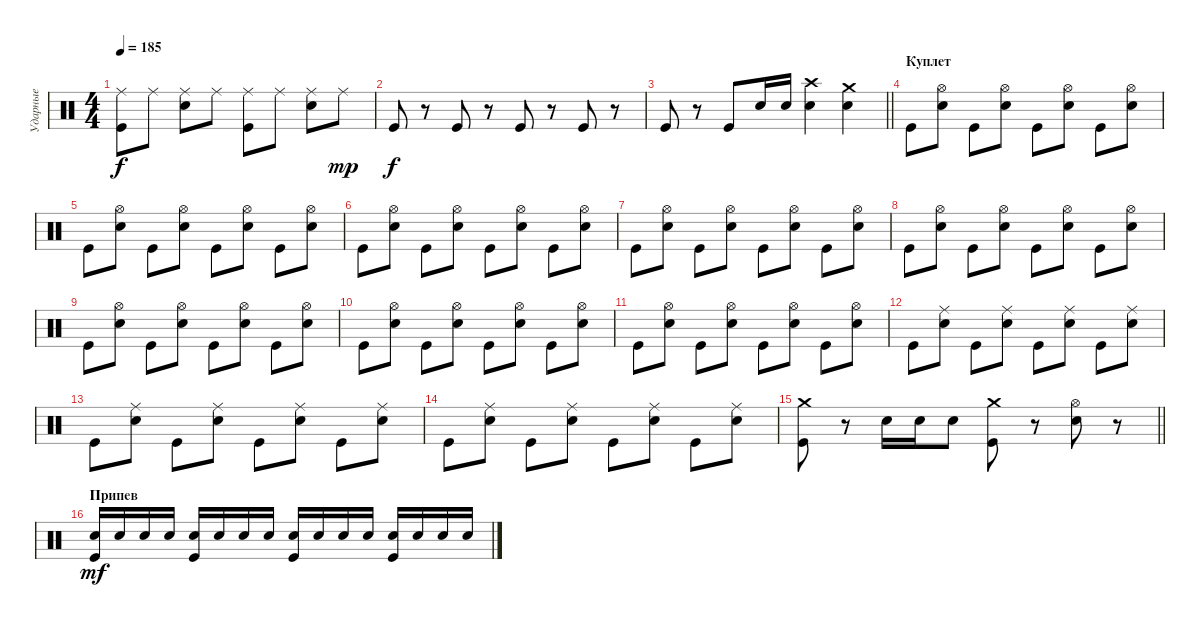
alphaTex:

\track ("Ударные" "Ударные") {instrument percussion}
\staff {score}
\articulation defaults
\ts (4 4)
\tempo 185
\clef neutral
\ks c
("Ride (middle)" "Kick (hit)").8{dy f} "Ride (middle)".8 ("Ride (middle)" "Electric Snare (hit)").8 "Ride (middle)".8 ("Ride (middle)" "Kick (hit)").8 "Ride (middle)".8 ("Ride (middle)" "Electric Snare (hit)").8 "Ride (middle)".8{dy mp} |
"Kick (hit)".8{dy f} r.8 "Kick (hit)".8 r.8 "Kick (hit)".8 r.8 "Kick (hit)".8 r.8 |
\barLineRight lightlight "Kick (hit)".8
r.8 "Kick (hit)".8 "Electric Snare (hit)".16 "Electric Snare (hit)".16 ("Crash high (hit)" "Electric Snare (hit)").4 ("Crash medium (hit)" "Electric Snare (hit)").4 |
\section ("" "Куплет")
"Kick (hit)".8 ("Hi-Hat (open)" "Electric Snare (hit)").8 "Kick (hit)".8 ("Hi-Hat (open)" "Electric Snare (hit)").8 "Kick (hit)".8 ("Hi-Hat (open)" "Electric Snare (hit)").8 "Kick (hit)".8 ("Hi-Hat (open)" "Electric Snare (hit)").8 |
"Kick (hit)".8 ("Hi-Hat (open)" "Electric Snare (hit)").8 "Kick (hit)".8 ("Hi-Hat (open)" "Electric Snare (hit)").8 "Kick (hit)".8 ("Hi-Hat (open)" "Electric Snare (hit)").8 "Kick (hit)".8 ("Hi-Hat (open)" "Electric Snare (hit)").8 |
"Kick (hit)".8 ("Hi-Hat (open)" "Electric Snare (hit)").8 "Kick (hit)".8 ("Hi-Hat (open)" "Electric Snare (hit)").8 "Kick (hit)".8 ("Hi-Hat (open)" "Electric Snare (hit)").8 "Kick (hit)".8 ("Hi-Hat (open)" "Electric Snare (hit)").8 |
"Kick (hit)".8 ("Hi-Hat (open)" "Electric Snare (hit)").8 "Kick (hit)".8 ("Hi-Hat (open)" "Electric Snare (hit)").8 "Kick (hit)".8 ("Hi-Hat (open)" "Electric Snare (hit)").8 "Kick (hit)".8 ("Hi-Hat (open)" "Electric Snare (hit)").8 |
"Kick (hit)".8 ("Hi-Hat (open)" "Electric Snare (hit)").8 "Kick (hit)".8 ("Hi-Hat (open)" "Electric Snare (hit)").8 "Kick (hit)".8 ("Hi-Hat (open)" "Electric Snare (hit)").8 "Kick (hit)".8 ("Hi-Hat (open)" "Electric Snare (hit)").8 |
"Kick (hit)".8 ("Hi-Hat (open)" "Electric Snare (hit)").8 "Kick (hit)".8 ("Hi-Hat (open)" "Electric Snare (hit)").8 "Kick (hit)".8 ("Hi-Hat (open)" "Electric Snare (hit)").8 "Kick (hit)".8 ("Hi-Hat (open)" "Electric Snare (hit)").8 |
"Kick (hit)".8 ("Hi-Hat (open)" "Electric Snare (hit)").8 "Kick (hit)".8 ("Hi-Hat (open)" "Electric Snare (hit)").8 "Kick (hit)".8 ("Hi-Hat (open)" "Electric Snare (hit)").8 "Kick (hit)".8 ("Hi-Hat (open)" "Electric Snare (hit)").8 |
"Kick (hit)".8 ("Hi-Hat (open)" "Electric Snare (hit)").8 "Kick (hit)".8 ("Hi-Hat (open)" "Electric Snare (hit)").8 "Kick (hit)".8 ("Hi-Hat (open)" "Electric Snare (hit)").8 "Kick (hit)".8 ("Hi-Hat (open)" "Electric Snare (hit)").8 |
"Kick (hit)".8 ("Ride (middle)" "Electric Snare (hit)").8 "Kick (hit)".8 ("Ride (middle)" "Electric Snare (hit)").8 "Kick (hit)".8 ("Ride (middle)" "Electric Snare (hit)").8 "Kick (hit)".8 ("Ride (middle)" "Electric Snare (hit)").8 |
"Kick (hit)".8 ("Ride (middle)" "Electric Snare (hit)").8 "Kick (hit)".8 ("Ride (middle)" "Electric Snare (hit)").8 "Kick (hit)".8 ("Ride (middle)" "Electric Snare (hit)").8 "Kick (hit)".8 ("Ride (middle)" "Electric Snare (hit)").8 |
"Kick (hit)".8 ("Ride (middle)" "Electric Snare (hit)").8 "Kick (hit)".8 ("Ride (middle)" "Electric Snare (hit)").8 "Kick (hit)".8 ("Ride (middle)" "Electric Snare (hit)").8 "Kick (hit)".8 ("Ride (middle)" "Electric Snare (hit)").8 |
\barLineRight lightlight
("Crash medium (hit)" "Kick (hit)").8 r.8 "Electric Snare (hit)".16 "Electric Snare (hit)".16 "Electric Snare (hit)".8 ("Crash medium (hit)" "Kick (hit)").8 r.8 ("Hi-Hat (open)" "Electric Snare (hit)").8 r.8 |
\section ("" "Припев")
("Electric Snare (hit)" "Kick (hit)").16{dy mf} "Electric Snare (hit)".16 "Electric Snare (hit)".16 "Electric Snare (hit)".16 ("Electric Snare (hit)" "Kick (hit)").16 "Electric Snare (hit)".16 "Electric Snare (hit)".16 "Electric Snare (hit)".16 ("Electric Snare (hit)" "Kick (hit)").16 "Electric Snare (hit)".16 "Electric Snare (hit)".16 "Electric Snare (hit)".16 ("Electric Snare (hit)" "Kick (hit)").16 "Electric Snare (hit)".16 "Electric Snare (hit)".16 "Electric Snare (hit)".16
